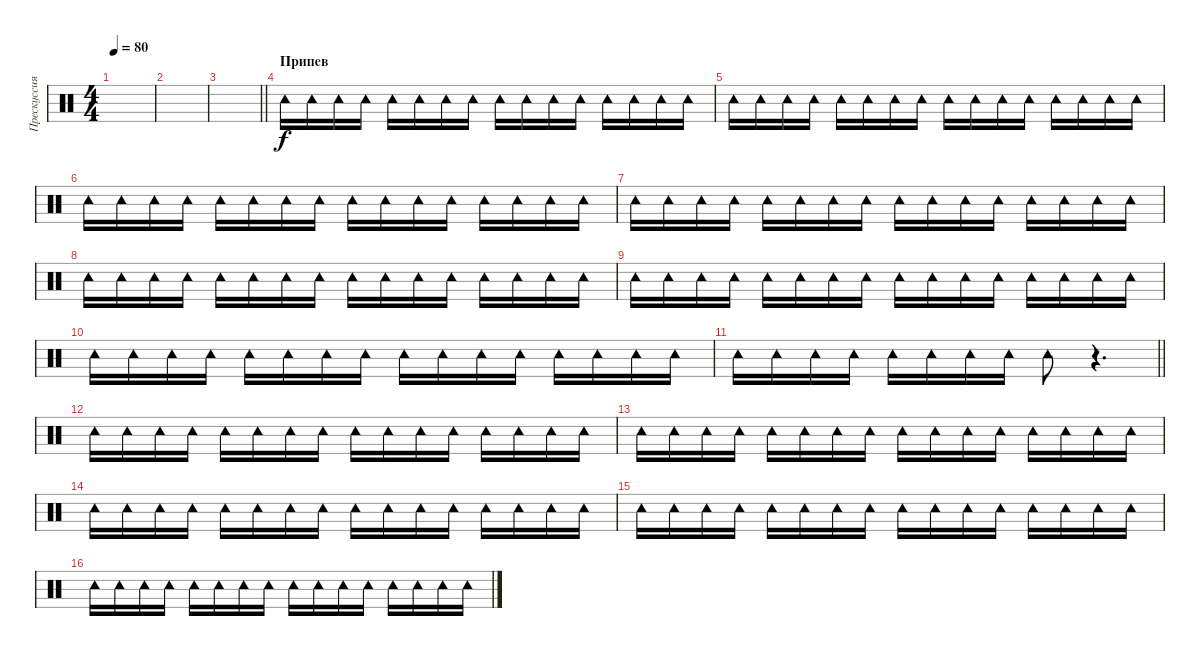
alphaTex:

\track ("Прескуссия" "Прескуссия") {instrument percussion}
\staff {score}
\articulation defaults
\ts (4 4)
\tempo 80
\clef neutral
\ks c
|
|
\barLineRight lightlight
|
\section ("" "Припев")
"Tambourine (hit)".16 "Tambourine (hit)".16 "Tambourine (hit)".16 "Tambourine (hit)".16 "Tambourine (hit)".16 "Tambourine (hit)".16 "Tambourine (hit)".16 "Tambourine (hit)".16 "Tambourine (hit)".16 "Tambourine (hit)".16 "Tambourine (hit)".16 "Tambourine (hit)".16 "Tambourine (hit)".16 "Tambourine (hit)".16 "Tambourine (hit)".16 "Tambourine (hit)".16 |
"Tambourine (hit)".16 "Tambourine (hit)".16 "Tambourine (hit)".16 "Tambourine (hit)".16 "Tambourine (hit)".16 "Tambourine (hit)".16 "Tambourine (hit)".16 "Tambourine (hit)".16 "Tambourine (hit)".16 "Tambourine (hit)".16 "Tambourine (hit)".16 "Tambourine (hit)".16 "Tambourine (hit)".16 "Tambourine (hit)".16 "Tambourine (hit)".16 "Tambourine (hit)".16 |
"Tambourine (hit)".16 "Tambourine (hit)".16 "Tambourine (hit)".16 "Tambourine (hit)".16 "Tambourine (hit)".16 "Tambourine (hit)".16 "Tambourine (hit)".16 "Tambourine (hit)".16 "Tambourine (hit)".16 "Tambourine (hit)".16 "Tambourine (hit)".16 "Tambourine (hit)".16 "Tambourine (hit)".16 "Tambourine (hit)".16 "Tambourine (hit)".16 "Tambourine (hit)".16 |
"Tambourine (hit)".16 "Tambourine (hit)".16 "Tambourine (hit)".16 "Tambourine (hit)".16 "Tambourine (hit)".16 "Tambourine (hit)".16 "Tambourine (hit)".16 "Tambourine (hit)".16 "Tambourine (hit)".16 "Tambourine (hit)".16 "Tambourine (hit)".16 "Tambourine (hit)".16 "Tambourine (hit)".16 "Tambourine (hit)".16 "Tambourine (hit)".16 "Tambourine (hit)".16 |
"Tambourine (hit)".16 "Tambourine (hit)".16 "Tambourine (hit)".16 "Tambourine (hit)".16 "Tambourine (hit)".16 "Tambourine (hit)".16 "Tambourine (hit)".16 "Tambourine (hit)".16 "Tambourine (hit)".16 "Tambourine (hit)".16 "Tambourine (hit)".16 "Tambourine (hit)".16 "Tambourine (hit)".16 "Tambourine (hit)".16 "Tambourine (hit)".16 "Tambourine (hit)".16 |
"Tambourine (hit)".16 "Tambourine (hit)".16 "Tambourine (hit)".16 "Tambourine (hit)".16 "Tambourine (hit)".16 "Tambourine (hit)".16 "Tambourine (hit)".16 "Tambourine (hit)".16 "Tambourine (hit)".16 "Tambourine (hit)".16 "Tambourine (hit)".16 "Tambourine (hit)".16 "Tambourine (hit)".16 "Tambourine (hit)".16 "Tambourine (hit)".16 "Tambourine (hit)".16 |
"Tambourine (hit)".16 "Tambourine (hit)".16 "Tambourine (hit)".16 "Tambourine (hit)".16 "Tambourine (hit)".16 "Tambourine (hit)".16 "Tambourine (hit)".16 "Tambourine (hit)".16 "Tambourine (hit)".16 "Tambourine (hit)".16 "Tambourine (hit)".16 "Tambourine (hit)".16 "Tambourine (hit)".16 "Tambourine (hit)".16 "Tambourine (hit)".16 "Tambourine (hit)".16 |
\barLineRight lightlight "Tambourine (hit)".16 "Tambourine (hit)".16 "Tambourine (hit)".16 "Tambourine (hit)".16 "Tambourine (hit)".16 "Tambourine (hit)".16 "Tambourine (hit)".16 "Tambourine (hit)".16 "Tambourine (hit)".8
r.4{d} |
"Tambourine (hit)".16 "Tambourine (hit)".16 "Tambourine (hit)".16 "Tambourine (hit)".16 "Tambourine (hit)".16 "Tambourine (hit)".16 "Tambourine (hit)".16 "Tambourine (hit)".16 "Tambourine (hit)".16 "Tambourine (hit)".16 "Tambourine (hit)".16 "Tambourine (hit)".16 "Tambourine (hit)".16 "Tambourine (hit)".16 "Tambourine (hit)".16 "Tambourine (hit)".16 |
"Tambourine (hit)".16 "Tambourine (hit)".16 "Tambourine (hit)".16 "Tambourine (hit)".16 "Tambourine (hit)".16 "Tambourine (hit)".16 "Tambourine (hit)".16 "Tambourine (hit)".16 "Tambourine (hit)".16 "Tambourine (hit)".16 "Tambourine (hit)".16 "Tambourine (hit)".16 "Tambourine (hit)".16 "Tambourine (hit)".16 "Tambourine (hit)".16 "Tambourine (hit)".16 |
"Tambourine (hit)".16 "Tambourine (hit)".16 "Tambourine (hit)".16 "Tambourine (hit)".16 "Tambourine (hit)".16 "Tambourine (hit)".16 "Tambourine (hit)".16 "Tambourine (hit)".16 "Tambourine (hit)".16 "Tambourine (hit)".16 "Tambourine (hit)".16 "Tambourine (hit)".16 "Tambourine (hit)".16 "Tambourine (hit)".16 "Tambourine (hit)".16 "Tambourine (hit)".16 |
"Tambourine (hit)".16 "Tambourine (hit)".16 "Tambourine (hit)".16 "Tambourine (hit)".16 "Tambourine (hit)".16 "Tambourine (hit)".16 "Tambourine (hit)".16 "Tambourine (hit)".16 "Tambourine (hit)".16 "Tambourine (hit)".16 "Tambourine (hit)".16 "Tambourine (hit)".16 "Tambourine (hit)".16 "Tambourine (hit)".16 "Tambourine (hit)".16 "Tambourine (hit)".16 |
"Tambourine (hit)".16 "Tambourine (hit)".16 "Tambourine (hit)".16 "Tambourine (hit)".16 "Tambourine (hit)".16 "Tambourine (hit)".16 "Tambourine (hit)".16 "Tambourine (hit)".16 "Tambourine (hit)".16 "Tambourine (hit)".16 "Tambourine (hit)".16 "Tambourine (hit)".16 "Tambourine (hit)".16 "Tambourine (hit)".16 "Tambourine (hit)".16 "Tambourine (hit)".16
